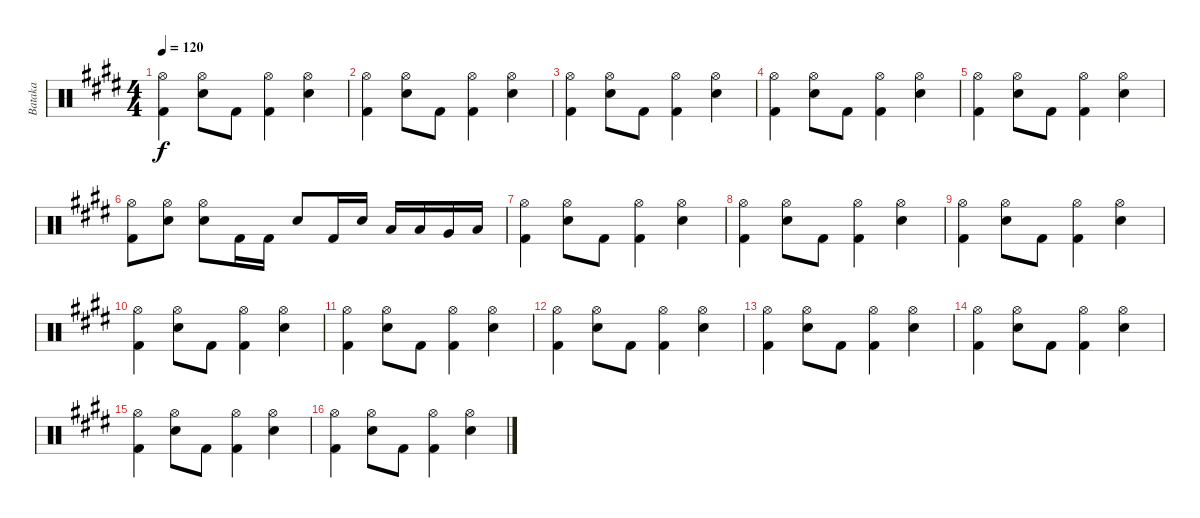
\track ("Bataka" "Bataka") {instrument percussion}
\staff {score}
\articulation defaults
\ts (4 4)
\tempo 120
\clef neutral
\ks e
("Hi-Hat (open)" "Kick (hit) 2").4{dy f} ("Hi-Hat (open)" "Electric Snare (hit)").8 "Kick (hit) 2".8 ("Hi-Hat (open)" "Kick (hit) 2").4 ("Hi-Hat (open)" "Electric Snare (hit)").4 |
("Hi-Hat (open)" "Kick (hit) 2").4 ("Hi-Hat (open)" "Electric Snare (hit)").8 "Kick (hit) 2".8 ("Hi-Hat (open)" "Kick (hit) 2").4 ("Hi-Hat (open)" "Electric Snare (hit)").4 |
("Hi-Hat (open)" "Kick (hit) 2").4 ("Hi-Hat (open)" "Electric Snare (hit)").8 "Kick (hit) 2".8 ("Hi-Hat (open)" "Kick (hit) 2").4 ("Hi-Hat (open)" "Electric Snare (hit)").4 |
("Hi-Hat (open)" "Kick (hit) 2").4 ("Hi-Hat (open)" "Electric Snare (hit)").8 "Kick (hit) 2".8 ("Hi-Hat (open)" "Kick (hit) 2").4 ("Hi-Hat (open)" "Electric Snare (hit)").4 |
("Hi-Hat (open)" "Kick (hit) 2").4 ("Hi-Hat (open)" "Electric Snare (hit)").8 "Kick (hit) 2".8 ("Hi-Hat (open)" "Kick (hit) 2").4 ("Hi-Hat (open)" "Electric Snare (hit)").4 |
("Hi-Hat (open)" "Kick (hit) 2").8 ("Hi-Hat (open)" "Electric Snare (hit)").8 ("Hi-Hat (open)" "Electric Snare (hit)").8 "Kick (hit) 2".16 "Kick (hit) 2".16 "Electric Snare (hit)".8 "Kick (hit) 2".16 "Electric Snare (hit)".16 "Low Tom (hit)".16 "Low Tom (hit)".16 "Very Low Tom (hit)".16 "Low Floor Tom (hit)".16 |
("Hi-Hat (open)" "Kick (hit) 2").4 ("Hi-Hat (open)" "Electric Snare (hit)").8 "Kick (hit) 2".8 ("Hi-Hat (open)" "Kick (hit) 2").4 ("Hi-Hat (open)" "Electric Snare (hit)").4 |
("Hi-Hat (open)" "Kick (hit) 2").4 ("Hi-Hat (open)" "Electric Snare (hit)").8 "Kick (hit) 2".8 ("Hi-Hat (open)" "Kick (hit) 2").4 ("Hi-Hat (open)" "Electric Snare (hit)").4 |
("Hi-Hat (open)" "Kick (hit) 2").4 ("Hi-Hat (open)" "Electric Snare (hit)").8 "Kick (hit) 2".8 ("Hi-Hat (open)" "Kick (hit) 2").4 ("Hi-Hat (open)" "Electric Snare (hit)").4 |
("Hi-Hat (open)" "Kick (hit) 2").4 ("Hi-Hat (open)" "Electric Snare (hit)").8 "Kick (hit) 2".8 ("Hi-Hat (open)" "Kick (hit) 2").4 ("Hi-Hat (open)" "Electric Snare (hit)").4 |
("Hi-Hat (open)" "Kick (hit) 2").4 ("Hi-Hat (open)" "Electric Snare (hit)").8 "Kick (hit) 2".8 ("Hi-Hat (open)" "Kick (hit) 2").4 ("Hi-Hat (open)" "Electric Snare (hit)").4 |
("Hi-Hat (open)" "Kick (hit) 2").4 ("Hi-Hat (open)" "Electric Snare (hit)").8 "Kick (hit) 2".8 ("Hi-Hat (open)" "Kick (hit) 2").4 ("Hi-Hat (open)" "Electric Snare (hit)").4 |
("Hi-Hat (open)" "Kick (hit) 2").4 ("Hi-Hat (open)" "Electric Snare (hit)").8 "Kick (hit) 2".8 ("Hi-Hat (open)" "Kick (hit) 2").4 ("Hi-Hat (open)" "Electric Snare (hit)").4 |
("Hi-Hat (open)" "Kick (hit) 2").4 ("Hi-Hat (open)" "Electric Snare (hit)").8 "Kick (hit) 2".8 ("Hi-Hat (open)" "Kick (hit) 2").4 ("Hi-Hat (open)" "Electric Snare (hit)").4 |
("Hi-Hat (open)" "Kick (hit) 2").4 ("Hi-Hat (open)" "Electric Snare (hit)").8 "Kick (hit) 2".8 ("Hi-Hat (open)" "Kick (hit) 2").4 ("Hi-Hat (open)" "Electric Snare (hit)").4 |
("Hi-Hat (open)" "Kick (hit) 2").4 ("Hi-Hat (open)" "Electric Snare (hit)").8 "Kick (hit) 2".8 ("Hi-Hat (open)" "Kick (hit) 2").4 ("Hi-Hat (open)" "Electric Snare (hit)").4
